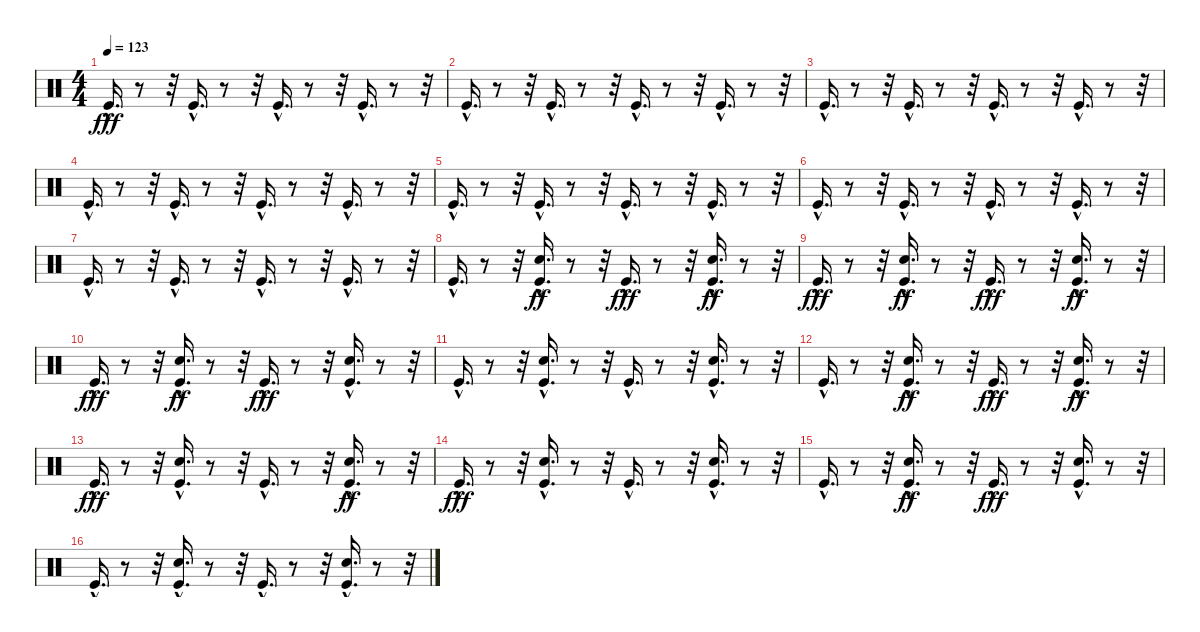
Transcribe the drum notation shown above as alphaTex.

\track "" {instrument percussion}
\staff {score}
\articulation defaults
\ts (4 4)
\tempo 123
\clef neutral
\ks c "Kick (hit)"{hac}.16{d dy fff}
r.8 r.32 "Kick (hit)"{hac}.16{d} r.8 r.32 "Kick (hit)"{hac}.16{d} r.8 r.32 "Kick (hit)"{hac}.16{d} r.8 r.32 |
"Kick (hit)"{hac}.16{d} r.8 r.32 "Kick (hit)"{hac}.16{d} r.8 r.32 "Kick (hit)"{hac}.16{d} r.8 r.32 "Kick (hit)"{hac}.16{d} r.8 r.32 |
"Kick (hit)"{hac}.16{d} r.8 r.32 "Kick (hit)"{hac}.16{d} r.8 r.32 "Kick (hit)"{hac}.16{d} r.8 r.32 "Kick (hit)"{hac}.16{d} r.8 r.32 |
"Kick (hit)"{hac}.16{d} r.8 r.32 "Kick (hit)"{hac}.16{d} r.8 r.32 "Kick (hit)"{hac}.16{d} r.8 r.32 "Kick (hit)"{hac}.16{d} r.8 r.32 |
"Kick (hit)"{hac}.16{d} r.8 r.32 "Kick (hit)"{hac}.16{d} r.8 r.32 "Kick (hit)"{hac}.16{d} r.8 r.32 "Kick (hit)"{hac}.16{d} r.8 r.32 |
"Kick (hit)"{hac}.16{d} r.8 r.32 "Kick (hit)"{hac}.16{d} r.8 r.32 "Kick (hit)"{hac}.16{d} r.8 r.32 "Kick (hit)"{hac}.16{d} r.8 r.32 |
"Kick (hit)"{hac}.16{d} r.8 r.32 "Kick (hit)"{hac}.16{d} r.8 r.32 "Kick (hit)"{hac}.16{d} r.8 r.32 "Kick (hit)"{hac}.16{d} r.8 r.32 |
"Kick (hit)"{hac}.16{d} r.8 r.32 ("Kick (hit)"{hac} "Snare (hit) 2").16{d dy ff} r.8 r.32 "Kick (hit)"{hac}.16{d dy fff} r.8 r.32 ("Kick (hit)"{hac} "Snare (hit) 2").16{d dy ff} r.8 r.32 |
"Kick (hit)"{hac}.16{d dy fff} r.8 r.32 ("Kick (hit)"{hac} "Snare (hit) 2").16{d dy ff} r.8 r.32 "Kick (hit)"{hac}.16{d dy fff} r.8 r.32 ("Kick (hit)"{hac} "Snare (hit) 2").16{d dy ff} r.8 r.32 |
"Kick (hit)"{hac}.16{d dy fff} r.8 r.32 ("Kick (hit)"{hac} "Snare (hit) 2").16{d dy ff} r.8 r.32 "Kick (hit)"{hac}.16{d dy fff} r.8 r.32 ("Snare (hit) 2" "Kick (hit)"{hac}).16{d} r.8 r.32 |
"Kick (hit)"{hac}.16{d} r.8 r.32 ("Snare (hit) 2" "Kick (hit)"{hac}).16{d} r.8 r.32 "Kick (hit)"{hac}.16{d} r.8 r.32 ("Snare (hit) 2" "Kick (hit)"{hac}).16{d} r.8 r.32 |
"Kick (hit)"{hac}.16{d} r.8 r.32 ("Kick (hit)"{hac} "Snare (hit) 2").16{d dy ff} r.8 r.32 "Kick (hit)"{hac}.16{d dy fff} r.8 r.32 ("Kick (hit)"{hac} "Snare (hit) 2").16{d dy ff} r.8 r.32 |
"Kick (hit)"{hac}.16{d dy fff} r.8 r.32 ("Kick (hit)"{hac} "Snare (hit) 2").16{d} r.8 r.32 "Kick (hit)"{hac}.16{d} r.8 r.32 ("Kick (hit)"{hac} "Snare (hit) 2").16{d dy ff} r.8 r.32 |
"Kick (hit)"{hac}.16{d dy fff} r.8 r.32 ("Kick (hit)"{hac} "Snare (hit) 2").16{d} r.8 r.32 "Kick (hit)"{hac}.16{d} r.8 r.32 ("Snare (hit) 2" "Kick (hit)"{hac}).16{d} r.8 r.32 |
"Kick (hit)"{hac}.16{d} r.8 r.32 ("Kick (hit)"{hac} "Snare (hit) 2").16{d dy ff} r.8 r.32 "Kick (hit)"{hac}.16{d dy fff} r.8 r.32 ("Snare (hit) 2" "Kick (hit)"{hac}).16{d} r.8 r.32 |
"Kick (hit)"{hac}.16{d} r.8 r.32 ("Kick (hit)"{hac} "Snare (hit) 2").16{d} r.8 r.32 "Kick (hit)"{hac}.16{d} r.8 r.32 ("Kick (hit)"{hac} "Snare (hit) 2").16{d} r.8 r.32
